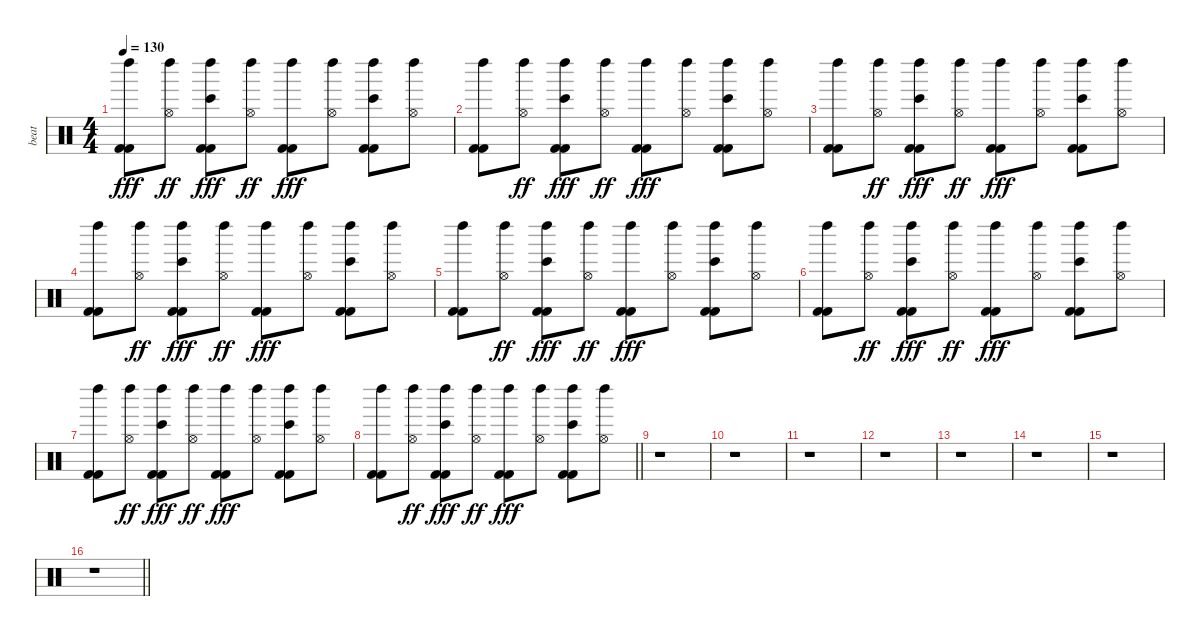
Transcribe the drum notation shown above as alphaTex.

\track ("beat" "beat") {instrument percussion}
\staff {score}
\articulation defaults
\ts (4 4)
\tempo 130
\clef neutral
\ks c
("Kick (hit) 2" "Kick (hit) 2" "Left Maraca (hit)").8{dy fff} ("Left Maraca (hit)" "Hi-Hat (open)").8{dy ff} ("Kick (hit) 2" "Kick (hit) 2" "Bongo High (hit)" "Left Maraca (hit)").8{dy fff} ("Left Maraca (hit)" "Hi-Hat (open)").8{dy ff} ("Kick (hit) 2" "Kick (hit) 2" "Left Maraca (hit)").8{dy fff} ("Left Maraca (hit)" "Hi-Hat (open)").8 ("Kick (hit) 2" "Kick (hit) 2" "Bongo High (hit)" "Left Maraca (hit)").8 ("Left Maraca (hit)" "Hi-Hat (open)").8 |
("Kick (hit) 2" "Kick (hit) 2" "Left Maraca (hit)").8 ("Left Maraca (hit)" "Hi-Hat (open)").8{dy ff} ("Kick (hit) 2" "Kick (hit) 2" "Bongo High (hit)" "Left Maraca (hit)").8{dy fff} ("Left Maraca (hit)" "Hi-Hat (open)").8{dy ff} ("Kick (hit) 2" "Kick (hit) 2" "Left Maraca (hit)").8{dy fff} ("Left Maraca (hit)" "Hi-Hat (open)").8 ("Kick (hit) 2" "Kick (hit) 2" "Bongo High (hit)" "Left Maraca (hit)").8 ("Left Maraca (hit)" "Hi-Hat (open)").8 |
("Kick (hit) 2" "Kick (hit) 2" "Left Maraca (hit)").8 ("Left Maraca (hit)" "Hi-Hat (open)").8{dy ff} ("Kick (hit) 2" "Kick (hit) 2" "Bongo High (hit)" "Left Maraca (hit)").8{dy fff} ("Left Maraca (hit)" "Hi-Hat (open)").8{dy ff} ("Kick (hit) 2" "Kick (hit) 2" "Left Maraca (hit)").8{dy fff} ("Left Maraca (hit)" "Hi-Hat (open)").8 ("Kick (hit) 2" "Kick (hit) 2" "Bongo High (hit)" "Left Maraca (hit)").8 ("Left Maraca (hit)" "Hi-Hat (open)").8 |
("Kick (hit) 2" "Kick (hit) 2" "Left Maraca (hit)").8 ("Left Maraca (hit)" "Hi-Hat (open)").8{dy ff} ("Kick (hit) 2" "Kick (hit) 2" "Bongo High (hit)" "Left Maraca (hit)").8{dy fff} ("Left Maraca (hit)" "Hi-Hat (open)").8{dy ff} ("Kick (hit) 2" "Kick (hit) 2" "Left Maraca (hit)").8{dy fff} ("Left Maraca (hit)" "Hi-Hat (open)").8 ("Kick (hit) 2" "Kick (hit) 2" "Bongo High (hit)" "Left Maraca (hit)").8 ("Left Maraca (hit)" "Hi-Hat (open)").8 |
("Kick (hit) 2" "Kick (hit) 2" "Left Maraca (hit)").8 ("Left Maraca (hit)" "Hi-Hat (open)").8{dy ff} ("Kick (hit) 2" "Kick (hit) 2" "Bongo High (hit)" "Left Maraca (hit)").8{dy fff} ("Left Maraca (hit)" "Hi-Hat (open)").8{dy ff} ("Kick (hit) 2" "Kick (hit) 2" "Left Maraca (hit)").8{dy fff} ("Left Maraca (hit)" "Hi-Hat (open)").8 ("Kick (hit) 2" "Kick (hit) 2" "Bongo High (hit)" "Left Maraca (hit)").8 ("Left Maraca (hit)" "Hi-Hat (open)").8 |
("Kick (hit) 2" "Kick (hit) 2" "Left Maraca (hit)").8 ("Left Maraca (hit)" "Hi-Hat (open)").8{dy ff} ("Kick (hit) 2" "Kick (hit) 2" "Bongo High (hit)" "Left Maraca (hit)").8{dy fff} ("Left Maraca (hit)" "Hi-Hat (open)").8{dy ff} ("Kick (hit) 2" "Kick (hit) 2" "Left Maraca (hit)").8{dy fff} ("Left Maraca (hit)" "Hi-Hat (open)").8 ("Kick (hit) 2" "Kick (hit) 2" "Bongo High (hit)" "Left Maraca (hit)").8 ("Left Maraca (hit)" "Hi-Hat (open)").8 |
("Kick (hit) 2" "Kick (hit) 2" "Left Maraca (hit)").8 ("Left Maraca (hit)" "Hi-Hat (open)").8{dy ff} ("Kick (hit) 2" "Kick (hit) 2" "Bongo High (hit)" "Left Maraca (hit)").8{dy fff} ("Left Maraca (hit)" "Hi-Hat (open)").8{dy ff} ("Kick (hit) 2" "Kick (hit) 2" "Left Maraca (hit)").8{dy fff} ("Left Maraca (hit)" "Hi-Hat (open)").8 ("Kick (hit) 2" "Kick (hit) 2" "Bongo High (hit)" "Left Maraca (hit)").8 ("Left Maraca (hit)" "Hi-Hat (open)").8 |
\barLineRight lightlight
("Kick (hit) 2" "Kick (hit) 2" "Left Maraca (hit)").8 ("Left Maraca (hit)" "Hi-Hat (open)").8{dy ff} ("Kick (hit) 2" "Kick (hit) 2" "Bongo High (hit)" "Left Maraca (hit)").8{dy fff} ("Left Maraca (hit)" "Hi-Hat (open)").8{dy ff} ("Kick (hit) 2" "Kick (hit) 2" "Left Maraca (hit)").8{dy fff} ("Left Maraca (hit)" "Hi-Hat (open)").8 ("Kick (hit) 2" "Kick (hit) 2" "Bongo High (hit)" "Left Maraca (hit)").8 ("Left Maraca (hit)" "Hi-Hat (open)").8 |
r.1 |
r.1 |
r.1 |
r.1 |
r.1 |
r.1 |
r.1 |
\barLineRight lightlight
r.1
